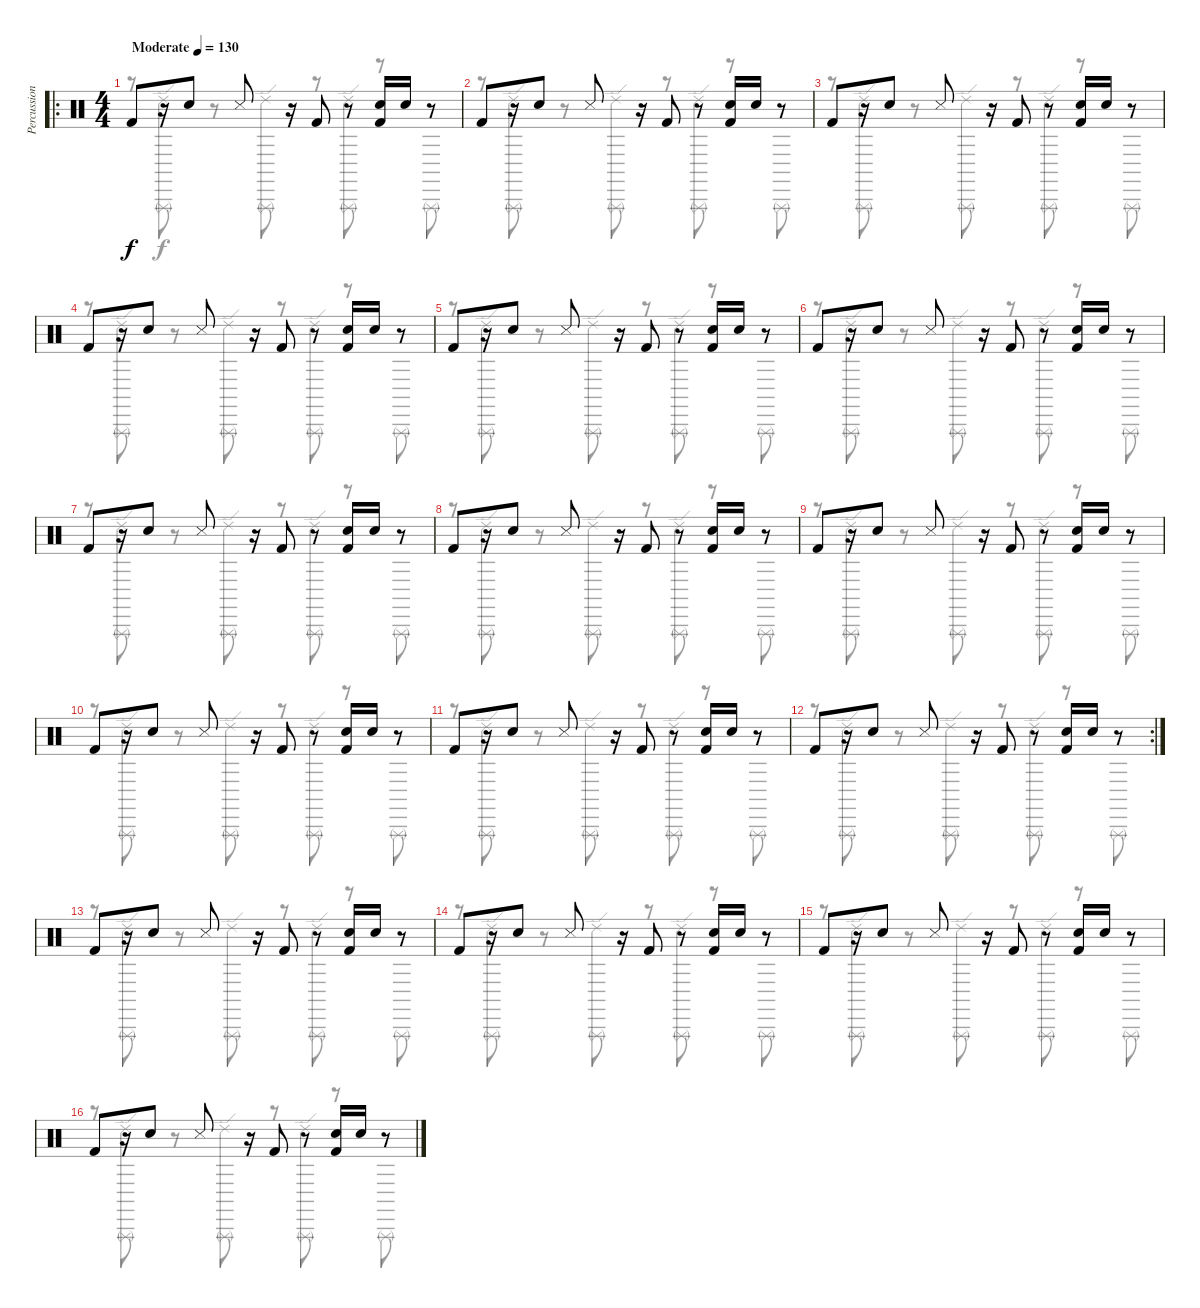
\track ("Percussion" "Percussion") {instrument percussion}
\staff {score}
\articulation defaults
\voice
\ro
\ts (4 4)
\tempo (130 "Moderate")
\clef neutral
\ks c "Kick (hit) 2".8{dy f}
r.16 "Electric Snare (hit)".8 "Snare (side stick) 3".8 r.16 "Kick (hit) 2".8 r.8 ("Electric Snare (hit)" "Kick (hit) 2").16 "Electric Snare (hit)".16 r.8 |
"Kick (hit) 2".8 r.16 "Electric Snare (hit)".8 "Snare (side stick) 3".8 r.16 "Kick (hit) 2".8 r.8 ("Electric Snare (hit)" "Kick (hit) 2").16 "Electric Snare (hit)".16 r.8 |
"Kick (hit) 2".8 r.16 "Electric Snare (hit)".8 "Snare (side stick) 3".8 r.16 "Kick (hit) 2".8 r.8 ("Electric Snare (hit)" "Kick (hit) 2").16 "Electric Snare (hit)".16 r.8 |
"Kick (hit) 2".8 r.16 "Electric Snare (hit)".8 "Snare (side stick) 3".8 r.16 "Kick (hit) 2".8 r.8 ("Electric Snare (hit)" "Kick (hit) 2").16 "Electric Snare (hit)".16 r.8 |
"Kick (hit) 2".8 r.16 "Electric Snare (hit)".8 "Snare (side stick) 3".8 r.16 "Kick (hit) 2".8 r.8 ("Electric Snare (hit)" "Kick (hit) 2").16 "Electric Snare (hit)".16 r.8 |
"Kick (hit) 2".8 r.16 "Electric Snare (hit)".8 "Snare (side stick) 3".8 r.16 "Kick (hit) 2".8 r.8 ("Electric Snare (hit)" "Kick (hit) 2").16 "Electric Snare (hit)".16 r.8 |
"Kick (hit) 2".8 r.16 "Electric Snare (hit)".8 "Snare (side stick) 3".8 r.16 "Kick (hit) 2".8 r.8 ("Electric Snare (hit)" "Kick (hit) 2").16 "Electric Snare (hit)".16 r.8 |
"Kick (hit) 2".8 r.16 "Electric Snare (hit)".8 "Snare (side stick) 3".8 r.16 "Kick (hit) 2".8 r.8 ("Electric Snare (hit)" "Kick (hit) 2").16 "Electric Snare (hit)".16 r.8 |
"Kick (hit) 2".8 r.16 "Electric Snare (hit)".8 "Snare (side stick) 3".8 r.16 "Kick (hit) 2".8 r.8 ("Electric Snare (hit)" "Kick (hit) 2").16 "Electric Snare (hit)".16 r.8 |
"Kick (hit) 2".8 r.16 "Electric Snare (hit)".8 "Snare (side stick) 3".8 r.16 "Kick (hit) 2".8 r.8 ("Electric Snare (hit)" "Kick (hit) 2").16 "Electric Snare (hit)".16 r.8 |
"Kick (hit) 2".8 r.16 "Electric Snare (hit)".8 "Snare (side stick) 3".8 r.16 "Kick (hit) 2".8 r.8 ("Electric Snare (hit)" "Kick (hit) 2").16 "Electric Snare (hit)".16 r.8 |
\rc 2 "Kick (hit) 2".8
r.16 "Electric Snare (hit)".8 "Snare (side stick) 3".8 r.16 "Kick (hit) 2".8 r.8 ("Electric Snare (hit)" "Kick (hit) 2").16 "Electric Snare (hit)".16 r.8 |
"Kick (hit) 2".8 r.16 "Electric Snare (hit)".8 "Snare (side stick) 3".8 r.16 "Kick (hit) 2".8 r.8 ("Electric Snare (hit)" "Kick (hit) 2").16 "Electric Snare (hit)".16 r.8 |
"Kick (hit) 2".8 r.16 "Electric Snare (hit)".8 "Snare (side stick) 3".8 r.16 "Kick (hit) 2".8 r.8 ("Electric Snare (hit)" "Kick (hit) 2").16 "Electric Snare (hit)".16 r.8 |
"Kick (hit) 2".8 r.16 "Electric Snare (hit)".8 "Snare (side stick) 3".8 r.16 "Kick (hit) 2".8 r.8 ("Electric Snare (hit)" "Kick (hit) 2").16 "Electric Snare (hit)".16 r.8 |
"Kick (hit) 2".8 r.16 "Electric Snare (hit)".8 "Snare (side stick) 3".8 r.16 "Kick (hit) 2".8 r.8 ("Electric Snare (hit)" "Kick (hit) 2").16 "Electric Snare (hit)".16 r.8
\voice
\clef neutral
\ottava regular
\simile none
\ks c
r.8{dy f} ("Triangle (rnute)" "Ride (edge) 2").8 r.8 ("Triangle (rnute)" "Ride (edge) 2").8 r.8 ("Triangle (rnute)" "Ride (edge) 2").8 r.8 "Triangle (rnute)".8 |
r.8 ("Triangle (rnute)" "Ride (edge) 2").8 r.8 ("Triangle (rnute)" "Ride (edge) 2").8 r.8 ("Triangle (rnute)" "Ride (edge) 2").8 r.8 "Triangle (rnute)".8 |
r.8 ("Triangle (rnute)" "Ride (edge) 2").8 r.8 ("Triangle (rnute)" "Ride (edge) 2").8 r.8 ("Triangle (rnute)" "Ride (edge) 2").8 r.8 "Triangle (rnute)".8 |
r.8 ("Triangle (rnute)" "Ride (edge) 2").8 r.8 ("Triangle (rnute)" "Ride (edge) 2").8 r.8 ("Triangle (rnute)" "Ride (edge) 2").8 r.8 "Triangle (rnute)".8 |
r.8 ("Triangle (rnute)" "Ride (edge) 2").8 r.8 ("Triangle (rnute)" "Ride (edge) 2").8 r.8 ("Triangle (rnute)" "Ride (edge) 2").8 r.8 "Triangle (rnute)".8 |
r.8 ("Triangle (rnute)" "Ride (edge) 2").8 r.8 ("Triangle (rnute)" "Ride (edge) 2").8 r.8 ("Triangle (rnute)" "Ride (edge) 2").8 r.8 "Triangle (rnute)".8 |
r.8 ("Triangle (rnute)" "Ride (edge) 2").8 r.8 ("Triangle (rnute)" "Ride (edge) 2").8 r.8 ("Triangle (rnute)" "Ride (edge) 2").8 r.8 "Triangle (rnute)".8 |
r.8 ("Triangle (rnute)" "Ride (edge) 2").8 r.8 ("Triangle (rnute)" "Ride (edge) 2").8 r.8 ("Triangle (rnute)" "Ride (edge) 2").8 r.8 "Triangle (rnute)".8 |
r.8 ("Triangle (rnute)" "Ride (edge) 2").8 r.8 ("Triangle (rnute)" "Ride (edge) 2").8 r.8 ("Triangle (rnute)" "Ride (edge) 2").8 r.8 "Triangle (rnute)".8 |
r.8 ("Triangle (rnute)" "Ride (edge) 2").8 r.8 ("Triangle (rnute)" "Ride (edge) 2").8 r.8 ("Triangle (rnute)" "Ride (edge) 2").8 r.8 "Triangle (rnute)".8 |
r.8 ("Triangle (rnute)" "Ride (edge) 2").8 r.8 ("Triangle (rnute)" "Ride (edge) 2").8 r.8 ("Triangle (rnute)" "Ride (edge) 2").8 r.8 "Triangle (rnute)".8 |
r.8 ("Triangle (rnute)" "Ride (edge) 2").8 r.8 ("Triangle (rnute)" "Ride (edge) 2").8 r.8 ("Triangle (rnute)" "Ride (edge) 2").8 r.8 "Triangle (rnute)".8 |
r.8 ("Triangle (rnute)" "Ride (edge) 2").8 r.8 ("Triangle (rnute)" "Ride (edge) 2").8 r.8 ("Triangle (rnute)" "Ride (edge) 2").8 r.8 "Triangle (rnute)".8 |
r.8 ("Triangle (rnute)" "Ride (edge) 2").8 r.8 ("Triangle (rnute)" "Ride (edge) 2").8 r.8 ("Triangle (rnute)" "Ride (edge) 2").8 r.8 "Triangle (rnute)".8 |
r.8 ("Triangle (rnute)" "Ride (edge) 2").8 r.8 ("Triangle (rnute)" "Ride (edge) 2").8 r.8 ("Triangle (rnute)" "Ride (edge) 2").8 r.8 "Triangle (rnute)".8 |
r.8 ("Triangle (rnute)" "Ride (edge) 2").8 r.8 ("Triangle (rnute)" "Ride (edge) 2").8 r.8 ("Triangle (rnute)" "Ride (edge) 2").8 r.8 "Triangle (rnute)".8
